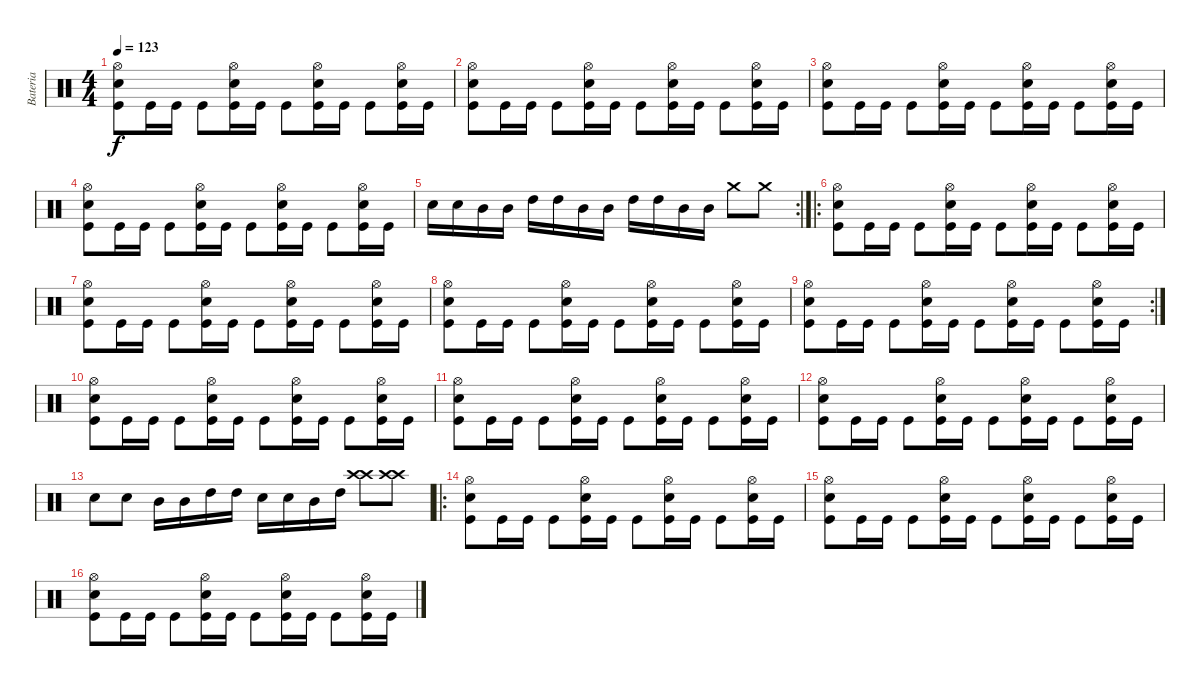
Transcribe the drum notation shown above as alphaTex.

\track ("Bateria" "Bateria") {instrument percussion}
\staff {score}
\articulation defaults
\ts (4 4)
\tempo 123
\clef neutral
\ks c
("Hi-Hat (open)" "Snare (hit) 2" "Kick (hit)").8{dy f} "Kick (hit)".16 "Kick (hit)".16 "Kick (hit)".8 ("Hi-Hat (open)" "Snare (hit) 2" "Kick (hit)").16 "Kick (hit)".16 "Kick (hit)".8 ("Hi-Hat (open)" "Snare (hit) 2" "Kick (hit)").16 "Kick (hit)".16 "Kick (hit)".8 ("Hi-Hat (open)" "Snare (hit) 2" "Kick (hit)").16 "Kick (hit)".16 |
("Hi-Hat (open)" "Snare (hit) 2" "Kick (hit)").8 "Kick (hit)".16 "Kick (hit)".16 "Kick (hit)".8 ("Hi-Hat (open)" "Snare (hit) 2" "Kick (hit)").16 "Kick (hit)".16 "Kick (hit)".8 ("Hi-Hat (open)" "Snare (hit) 2" "Kick (hit)").16 "Kick (hit)".16 "Kick (hit)".8 ("Hi-Hat (open)" "Snare (hit) 2" "Kick (hit)").16 "Kick (hit)".16 |
("Hi-Hat (open)" "Snare (hit) 2" "Kick (hit)").8 "Kick (hit)".16 "Kick (hit)".16 "Kick (hit)".8 ("Hi-Hat (open)" "Snare (hit) 2" "Kick (hit)").16 "Kick (hit)".16 "Kick (hit)".8 ("Hi-Hat (open)" "Snare (hit) 2" "Kick (hit)").16 "Kick (hit)".16 "Kick (hit)".8 ("Hi-Hat (open)" "Snare (hit) 2" "Kick (hit)").16 "Kick (hit)".16 |
("Hi-Hat (open)" "Snare (hit) 2" "Kick (hit)").8 "Kick (hit)".16 "Kick (hit)".16 "Kick (hit)".8 ("Hi-Hat (open)" "Snare (hit) 2" "Kick (hit)").16 "Kick (hit)".16 "Kick (hit)".8 ("Hi-Hat (open)" "Snare (hit) 2" "Kick (hit)").16 "Kick (hit)".16 "Kick (hit)".8 ("Hi-Hat (open)" "Snare (hit) 2" "Kick (hit)").16 "Kick (hit)".16 |
\rc 2 "Snare (hit) 2".16 "Snare (hit) 2".16 "Mid Tom (hit)".16 "Mid Tom (hit)".16 "High Tom (hit)".16 "High Tom (hit)".16 "Mid Tom (hit)".16 "Mid Tom (hit)".16 "High Tom (hit)".16 "High Tom (hit)".16 "Mid Tom (hit)".16 "Mid Tom (hit)".16 "Crash medium (hit)".8 "Crash medium (hit)".8
|
\ro
("Hi-Hat (open)" "Snare (hit) 2" "Kick (hit)").8 "Kick (hit)".16 "Kick (hit)".16 "Kick (hit)".8 ("Hi-Hat (open)" "Snare (hit) 2" "Kick (hit)").16 "Kick (hit)".16 "Kick (hit)".8 ("Hi-Hat (open)" "Snare (hit) 2" "Kick (hit)").16 "Kick (hit)".16 "Kick (hit)".8 ("Hi-Hat (open)" "Snare (hit) 2" "Kick (hit)").16 "Kick (hit)".16 |
("Hi-Hat (open)" "Snare (hit) 2" "Kick (hit)").8 "Kick (hit)".16 "Kick (hit)".16 "Kick (hit)".8 ("Hi-Hat (open)" "Snare (hit) 2" "Kick (hit)").16 "Kick (hit)".16 "Kick (hit)".8 ("Hi-Hat (open)" "Snare (hit) 2" "Kick (hit)").16 "Kick (hit)".16 "Kick (hit)".8 ("Hi-Hat (open)" "Snare (hit) 2" "Kick (hit)").16 "Kick (hit)".16 |
("Hi-Hat (open)" "Snare (hit) 2" "Kick (hit)").8 "Kick (hit)".16 "Kick (hit)".16 "Kick (hit)".8 ("Hi-Hat (open)" "Snare (hit) 2" "Kick (hit)").16 "Kick (hit)".16 "Kick (hit)".8 ("Hi-Hat (open)" "Snare (hit) 2" "Kick (hit)").16 "Kick (hit)".16 "Kick (hit)".8 ("Hi-Hat (open)" "Snare (hit) 2" "Kick (hit)").16 "Kick (hit)".16 |
\rc 2
("Hi-Hat (open)" "Snare (hit) 2" "Kick (hit)").8 "Kick (hit)".16 "Kick (hit)".16 "Kick (hit)".8 ("Hi-Hat (open)" "Snare (hit) 2" "Kick (hit)").16 "Kick (hit)".16 "Kick (hit)".8 ("Hi-Hat (open)" "Snare (hit) 2" "Kick (hit)").16 "Kick (hit)".16 "Kick (hit)".8 ("Hi-Hat (open)" "Snare (hit) 2" "Kick (hit)").16 "Kick (hit)".16 |
("Hi-Hat (open)" "Snare (hit) 2" "Kick (hit)").8 "Kick (hit)".16 "Kick (hit)".16 "Kick (hit)".8 ("Hi-Hat (open)" "Snare (hit) 2" "Kick (hit)").16 "Kick (hit)".16 "Kick (hit)".8 ("Hi-Hat (open)" "Snare (hit) 2" "Kick (hit)").16 "Kick (hit)".16 "Kick (hit)".8 ("Hi-Hat (open)" "Snare (hit) 2" "Kick (hit)").16 "Kick (hit)".16 |
("Hi-Hat (open)" "Snare (hit) 2" "Kick (hit)").8 "Kick (hit)".16 "Kick (hit)".16 "Kick (hit)".8 ("Hi-Hat (open)" "Snare (hit) 2" "Kick (hit)").16 "Kick (hit)".16 "Kick (hit)".8 ("Hi-Hat (open)" "Snare (hit) 2" "Kick (hit)").16 "Kick (hit)".16 "Kick (hit)".8 ("Hi-Hat (open)" "Snare (hit) 2" "Kick (hit)").16 "Kick (hit)".16 |
("Hi-Hat (open)" "Snare (hit) 2" "Kick (hit)").8 "Kick (hit)".16 "Kick (hit)".16 "Kick (hit)".8 ("Hi-Hat (open)" "Snare (hit) 2" "Kick (hit)").16 "Kick (hit)".16 "Kick (hit)".8 ("Hi-Hat (open)" "Snare (hit) 2" "Kick (hit)").16 "Kick (hit)".16 "Kick (hit)".8 ("Hi-Hat (open)" "Snare (hit) 2" "Kick (hit)").16 "Kick (hit)".16 |
"Snare (hit) 2".8 "Snare (hit) 2".8 "Mid Tom (hit)".16 "Mid Tom (hit)".16 "High Tom (hit)".16 "High Tom (hit)".16 "Snare (hit) 2".16 "Snare (hit) 2".16 "Mid Tom (hit)".16 "High Tom (hit)".16 ("Crash high (hit)" "Crash high (hit)").8 ("Crash high (hit)" "Crash high (hit)").8 |
\ro
("Hi-Hat (open)" "Snare (hit) 2" "Kick (hit)").8 "Kick (hit)".16 "Kick (hit)".16 "Kick (hit)".8 ("Hi-Hat (open)" "Snare (hit) 2" "Kick (hit)").16 "Kick (hit)".16 "Kick (hit)".8 ("Hi-Hat (open)" "Snare (hit) 2" "Kick (hit)").16 "Kick (hit)".16 "Kick (hit)".8 ("Hi-Hat (open)" "Snare (hit) 2" "Kick (hit)").16 "Kick (hit)".16 |
("Hi-Hat (open)" "Snare (hit) 2" "Kick (hit)").8 "Kick (hit)".16 "Kick (hit)".16 "Kick (hit)".8 ("Hi-Hat (open)" "Snare (hit) 2" "Kick (hit)").16 "Kick (hit)".16 "Kick (hit)".8 ("Hi-Hat (open)" "Snare (hit) 2" "Kick (hit)").16 "Kick (hit)".16 "Kick (hit)".8 ("Hi-Hat (open)" "Snare (hit) 2" "Kick (hit)").16 "Kick (hit)".16 |
("Hi-Hat (open)" "Snare (hit) 2" "Kick (hit)").8 "Kick (hit)".16 "Kick (hit)".16 "Kick (hit)".8 ("Hi-Hat (open)" "Snare (hit) 2" "Kick (hit)").16 "Kick (hit)".16 "Kick (hit)".8 ("Hi-Hat (open)" "Snare (hit) 2" "Kick (hit)").16 "Kick (hit)".16 "Kick (hit)".8 ("Hi-Hat (open)" "Snare (hit) 2" "Kick (hit)").16 "Kick (hit)".16
